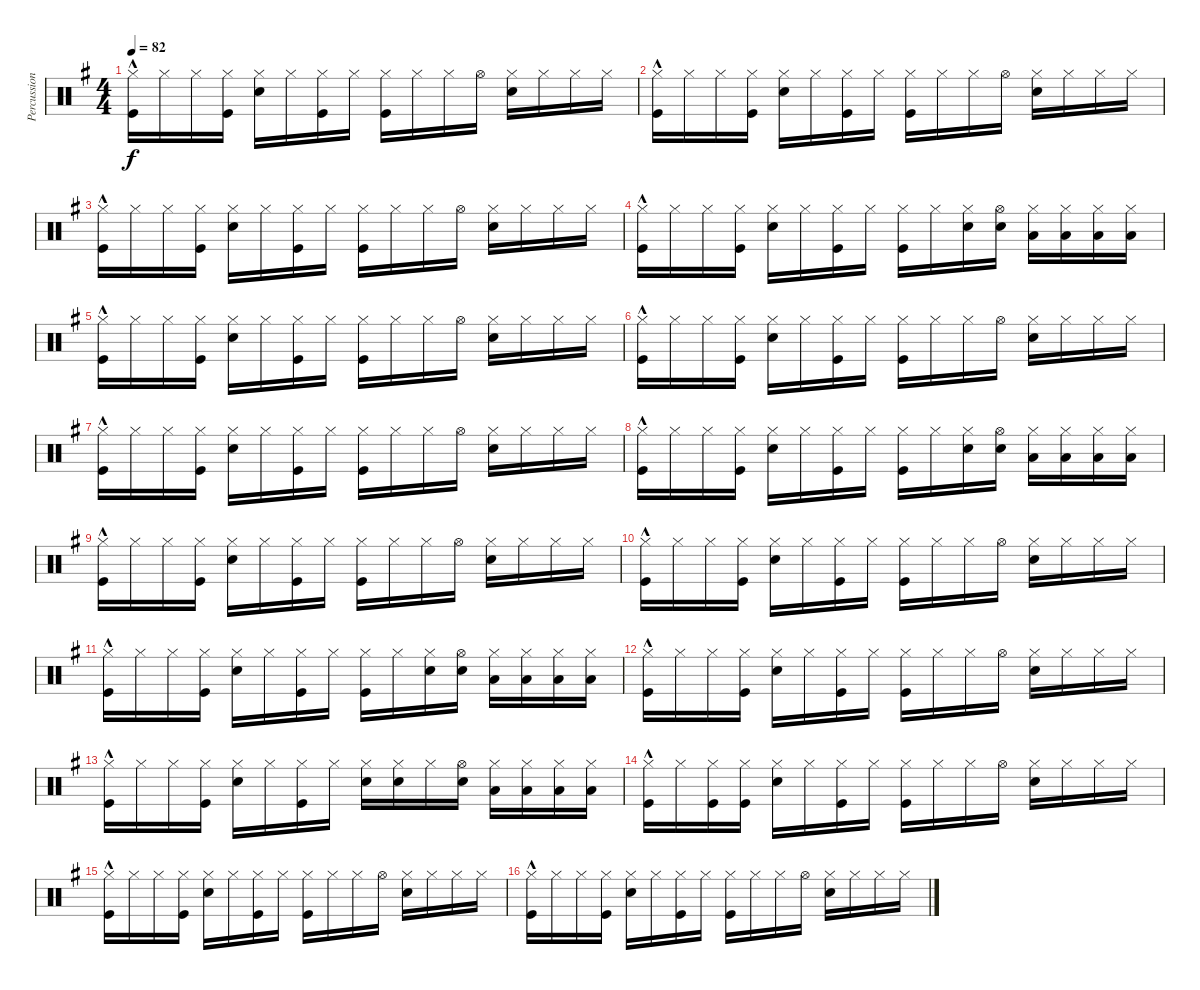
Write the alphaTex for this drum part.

\track ("Percussions" "Percussion") {instrument percussion}
\staff {score}
\articulation defaults
\ts (4 4)
\tempo 82
\clef neutral
\ks g
("Hi-Hat (closed)" "Kick (hit)"{hac}).16{dy f} "Hi-Hat (closed)".16 "Hi-Hat (closed)".16 ("Hi-Hat (closed)" "Kick (hit)").16 ("Hi-Hat (closed)" "Snare (hit) 2").16 "Hi-Hat (closed)".16 ("Hi-Hat (closed)" "Kick (hit)").16 "Hi-Hat (closed)".16 ("Hi-Hat (closed)" "Kick (hit)").16 "Hi-Hat (closed)".16 "Hi-Hat (closed)".16 "Hi-Hat (open)".16 ("Hi-Hat (closed)" "Snare (hit) 2").16 "Hi-Hat (closed)".16 "Hi-Hat (closed)".16 "Hi-Hat (closed)".16 |
("Hi-Hat (closed)" "Kick (hit)"{hac}).16 "Hi-Hat (closed)".16 "Hi-Hat (closed)".16 ("Hi-Hat (closed)" "Kick (hit)").16 ("Hi-Hat (closed)" "Snare (hit) 2").16 "Hi-Hat (closed)".16 ("Hi-Hat (closed)" "Kick (hit)").16 "Hi-Hat (closed)".16 ("Hi-Hat (closed)" "Kick (hit)").16 "Hi-Hat (closed)".16 "Hi-Hat (closed)".16 "Hi-Hat (open)".16 ("Hi-Hat (closed)" "Snare (hit) 2").16 "Hi-Hat (closed)".16 "Hi-Hat (closed)".16 "Hi-Hat (closed)".16 |
("Hi-Hat (closed)" "Kick (hit)"{hac}).16 "Hi-Hat (closed)".16 "Hi-Hat (closed)".16 ("Hi-Hat (closed)" "Kick (hit)").16 ("Hi-Hat (closed)" "Snare (hit) 2").16 "Hi-Hat (closed)".16 ("Hi-Hat (closed)" "Kick (hit)").16 "Hi-Hat (closed)".16 ("Hi-Hat (closed)" "Kick (hit)").16 "Hi-Hat (closed)".16 "Hi-Hat (closed)".16 "Hi-Hat (open)".16 ("Hi-Hat (closed)" "Snare (hit) 2").16 "Hi-Hat (closed)".16 "Hi-Hat (closed)".16 "Hi-Hat (closed)".16 |
("Hi-Hat (closed)" "Kick (hit)"{hac}).16 "Hi-Hat (closed)".16 "Hi-Hat (closed)".16 ("Hi-Hat (closed)" "Kick (hit)").16 ("Hi-Hat (closed)" "Snare (hit) 2").16 "Hi-Hat (closed)".16 ("Hi-Hat (closed)" "Kick (hit)").16 "Hi-Hat (closed)".16 ("Hi-Hat (closed)" "Kick (hit)").16 "Hi-Hat (closed)".16 ("Hi-Hat (closed)" "Snare (hit) 2").16 ("Hi-Hat (open)" "Snare (hit) 2").16 ("Hi-Hat (closed)" "Low Tom (hit)").16 ("Hi-Hat (closed)" "Low Tom (hit)").16 ("Hi-Hat (closed)" "Low Floor Tom (hit)").16 ("Hi-Hat (closed)" "Low Floor Tom (hit)").16 |
("Hi-Hat (closed)" "Kick (hit)"{hac}).16 "Hi-Hat (closed)".16 "Hi-Hat (closed)".16 ("Hi-Hat (closed)" "Kick (hit)").16 ("Hi-Hat (closed)" "Snare (hit) 2").16 "Hi-Hat (closed)".16 ("Hi-Hat (closed)" "Kick (hit)").16 "Hi-Hat (closed)".16 ("Hi-Hat (closed)" "Kick (hit)").16 "Hi-Hat (closed)".16 "Hi-Hat (closed)".16 "Hi-Hat (open)".16 ("Hi-Hat (closed)" "Snare (hit) 2").16 "Hi-Hat (closed)".16 "Hi-Hat (closed)".16 "Hi-Hat (closed)".16 |
("Hi-Hat (closed)" "Kick (hit)"{hac}).16 "Hi-Hat (closed)".16 "Hi-Hat (closed)".16 ("Hi-Hat (closed)" "Kick (hit)").16 ("Hi-Hat (closed)" "Snare (hit) 2").16 "Hi-Hat (closed)".16 ("Hi-Hat (closed)" "Kick (hit)").16 "Hi-Hat (closed)".16 ("Hi-Hat (closed)" "Kick (hit)").16 "Hi-Hat (closed)".16 "Hi-Hat (closed)".16 "Hi-Hat (open)".16 ("Hi-Hat (closed)" "Snare (hit) 2").16 "Hi-Hat (closed)".16 "Hi-Hat (closed)".16 "Hi-Hat (closed)".16 |
("Hi-Hat (closed)" "Kick (hit)"{hac}).16 "Hi-Hat (closed)".16 "Hi-Hat (closed)".16 ("Hi-Hat (closed)" "Kick (hit)").16 ("Hi-Hat (closed)" "Snare (hit) 2").16 "Hi-Hat (closed)".16 ("Hi-Hat (closed)" "Kick (hit)").16 "Hi-Hat (closed)".16 ("Hi-Hat (closed)" "Kick (hit)").16 "Hi-Hat (closed)".16 "Hi-Hat (closed)".16 "Hi-Hat (open)".16 ("Hi-Hat (closed)" "Snare (hit) 2").16 "Hi-Hat (closed)".16 "Hi-Hat (closed)".16 "Hi-Hat (closed)".16 |
("Hi-Hat (closed)" "Kick (hit)"{hac}).16 "Hi-Hat (closed)".16 "Hi-Hat (closed)".16 ("Hi-Hat (closed)" "Kick (hit)").16 ("Hi-Hat (closed)" "Snare (hit) 2").16 "Hi-Hat (closed)".16 ("Hi-Hat (closed)" "Kick (hit)").16 "Hi-Hat (closed)".16 ("Hi-Hat (closed)" "Kick (hit)").16 "Hi-Hat (closed)".16 ("Hi-Hat (closed)" "Snare (hit) 2").16 ("Hi-Hat (open)" "Snare (hit) 2").16 ("Hi-Hat (closed)" "Low Tom (hit)").16 ("Hi-Hat (closed)" "Low Tom (hit)").16 ("Hi-Hat (closed)" "Low Floor Tom (hit)").16 ("Hi-Hat (closed)" "Low Floor Tom (hit)").16 |
("Hi-Hat (closed)" "Kick (hit)"{hac}).16 "Hi-Hat (closed)".16 "Hi-Hat (closed)".16 ("Hi-Hat (closed)" "Kick (hit)").16 ("Hi-Hat (closed)" "Snare (hit) 2").16 "Hi-Hat (closed)".16 ("Hi-Hat (closed)" "Kick (hit)").16 "Hi-Hat (closed)".16 ("Hi-Hat (closed)" "Kick (hit)").16 "Hi-Hat (closed)".16 "Hi-Hat (closed)".16 "Hi-Hat (open)".16 ("Hi-Hat (closed)" "Snare (hit) 2").16 "Hi-Hat (closed)".16 "Hi-Hat (closed)".16 "Hi-Hat (closed)".16 |
("Hi-Hat (closed)" "Kick (hit)"{hac}).16 "Hi-Hat (closed)".16 "Hi-Hat (closed)".16 ("Hi-Hat (closed)" "Kick (hit)").16 ("Hi-Hat (closed)" "Snare (hit) 2").16 "Hi-Hat (closed)".16 ("Hi-Hat (closed)" "Kick (hit)").16 "Hi-Hat (closed)".16 ("Hi-Hat (closed)" "Kick (hit)").16 "Hi-Hat (closed)".16 "Hi-Hat (closed)".16 "Hi-Hat (open)".16 ("Hi-Hat (closed)" "Snare (hit) 2").16 "Hi-Hat (closed)".16 "Hi-Hat (closed)".16 "Hi-Hat (closed)".16 |
("Hi-Hat (closed)" "Kick (hit)"{hac}).16 "Hi-Hat (closed)".16 "Hi-Hat (closed)".16 ("Hi-Hat (closed)" "Kick (hit)").16 ("Hi-Hat (closed)" "Snare (hit) 2").16 "Hi-Hat (closed)".16 ("Hi-Hat (closed)" "Kick (hit)").16 "Hi-Hat (closed)".16 ("Hi-Hat (closed)" "Kick (hit)").16 "Hi-Hat (closed)".16 ("Hi-Hat (closed)" "Snare (hit) 2").16 ("Hi-Hat (open)" "Snare (hit) 2").16 ("Hi-Hat (closed)" "Low Tom (hit)").16 ("Hi-Hat (closed)" "Low Tom (hit)").16 ("Hi-Hat (closed)" "Low Floor Tom (hit)").16 ("Hi-Hat (closed)" "Low Floor Tom (hit)").16 |
("Hi-Hat (closed)" "Kick (hit)"{hac}).16 "Hi-Hat (closed)".16 "Hi-Hat (closed)".16 ("Hi-Hat (closed)" "Kick (hit)").16 ("Hi-Hat (closed)" "Snare (hit) 2").16 "Hi-Hat (closed)".16 ("Hi-Hat (closed)" "Kick (hit)").16 "Hi-Hat (closed)".16 ("Hi-Hat (closed)" "Kick (hit)").16 "Hi-Hat (closed)".16 "Hi-Hat (closed)".16 "Hi-Hat (open)".16 ("Hi-Hat (closed)" "Snare (hit) 2").16 "Hi-Hat (closed)".16 "Hi-Hat (closed)".16 "Hi-Hat (closed)".16 |
("Hi-Hat (closed)" "Kick (hit)"{hac}).16 "Hi-Hat (closed)".16 "Hi-Hat (closed)".16 ("Hi-Hat (closed)" "Kick (hit)").16 ("Hi-Hat (closed)" "Snare (hit) 2").16 "Hi-Hat (closed)".16 ("Hi-Hat (closed)" "Kick (hit)").16 "Hi-Hat (closed)".16 ("Hi-Hat (closed)" "Snare (hit) 2").16 ("Hi-Hat (closed)" "Snare (hit) 2").16 "Hi-Hat (closed)".16 ("Hi-Hat (open)" "Snare (hit) 2").16 ("Hi-Hat (closed)" "Low Tom (hit)").16 ("Hi-Hat (closed)" "Low Tom (hit)").16 ("Hi-Hat (closed)" "Low Floor Tom (hit)").16 ("Hi-Hat (closed)" "Low Floor Tom (hit)").16 |
("Hi-Hat (closed)" "Kick (hit)"{hac}).16 "Hi-Hat (closed)".16 ("Hi-Hat (closed)" "Kick (hit)").16 ("Hi-Hat (closed)" "Kick (hit)").16 ("Hi-Hat (closed)" "Snare (hit) 2").16 "Hi-Hat (closed)".16 ("Hi-Hat (closed)" "Kick (hit)").16 "Hi-Hat (closed)".16 ("Hi-Hat (closed)" "Kick (hit)").16 "Hi-Hat (closed)".16 "Hi-Hat (closed)".16 "Hi-Hat (open)".16 ("Hi-Hat (closed)" "Snare (hit) 2").16 "Hi-Hat (closed)".16 "Hi-Hat (closed)".16 "Hi-Hat (closed)".16 |
("Hi-Hat (closed)" "Kick (hit)"{hac}).16 "Hi-Hat (closed)".16 "Hi-Hat (closed)".16 ("Hi-Hat (closed)" "Kick (hit)").16 ("Hi-Hat (closed)" "Snare (hit) 2").16 "Hi-Hat (closed)".16 ("Hi-Hat (closed)" "Kick (hit)").16 "Hi-Hat (closed)".16 ("Hi-Hat (closed)" "Kick (hit)").16 "Hi-Hat (closed)".16 "Hi-Hat (closed)".16 "Hi-Hat (open)".16 ("Hi-Hat (closed)" "Snare (hit) 2").16 "Hi-Hat (closed)".16 "Hi-Hat (closed)".16 "Hi-Hat (closed)".16 |
("Hi-Hat (closed)" "Kick (hit)"{hac}).16 "Hi-Hat (closed)".16 "Hi-Hat (closed)".16 ("Hi-Hat (closed)" "Kick (hit)").16 ("Hi-Hat (closed)" "Snare (hit) 2").16 "Hi-Hat (closed)".16 ("Hi-Hat (closed)" "Kick (hit)").16 "Hi-Hat (closed)".16 ("Hi-Hat (closed)" "Kick (hit)").16 "Hi-Hat (closed)".16 "Hi-Hat (closed)".16 "Hi-Hat (open)".16 ("Hi-Hat (closed)" "Snare (hit) 2").16 "Hi-Hat (closed)".16 "Hi-Hat (closed)".16 "Hi-Hat (closed)".16
